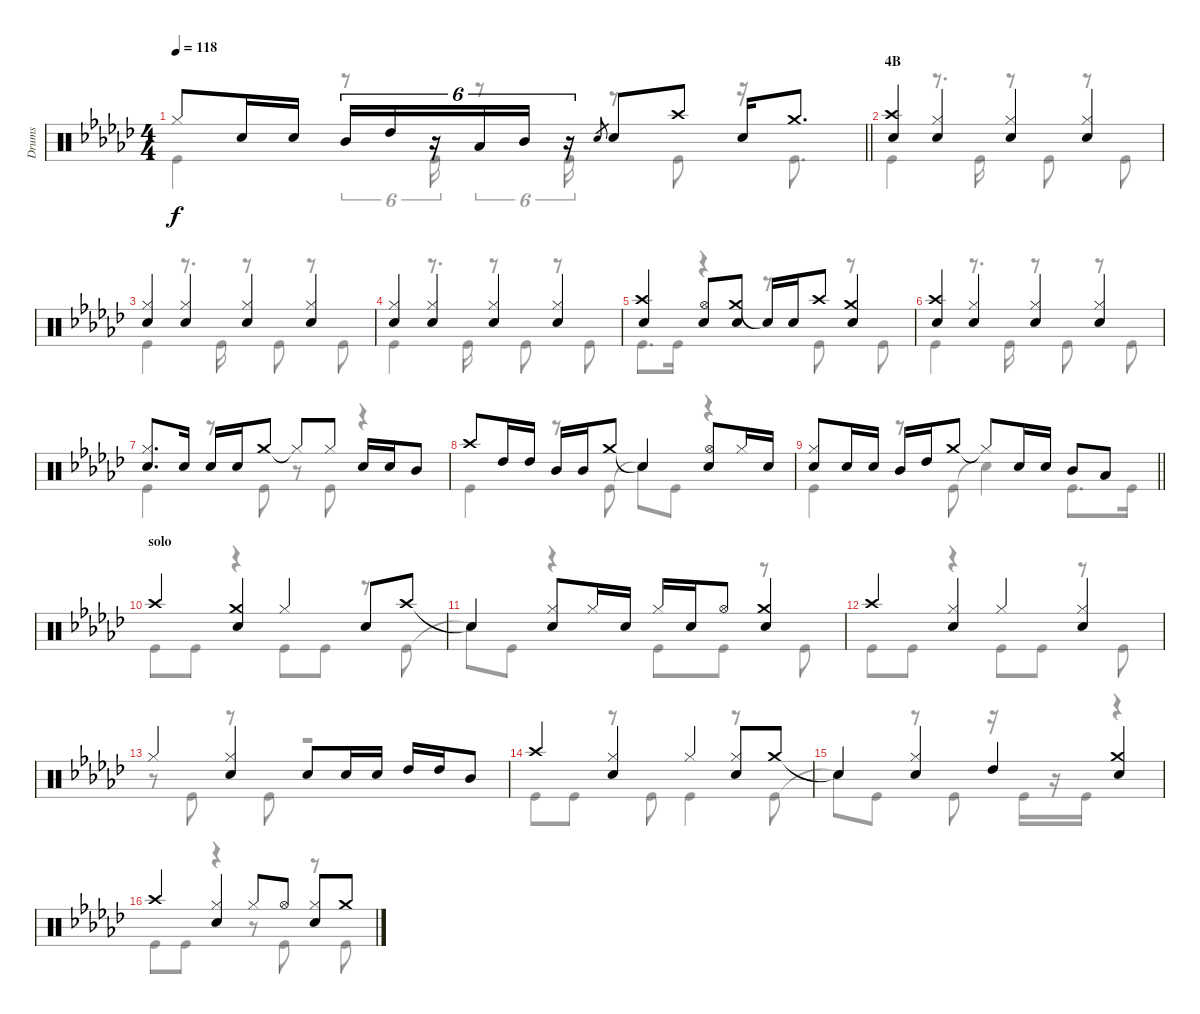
\track ("Drums" "Drums") {instrument percussion}
\staff {score}
\articulation defaults
\voice
\ts (4 4)
\tempo 118
\clef neutral
\barLineRight lightlight
\ks gb "Hi-Hat (closed)".8{dy f} "Snare (hit) 2".16 "Snare (hit) 2".16 "Mid Tom (hit)".16{tu (6 4)} "High Tom (hit)".16{tu (6 4)}
r.16{tu (6 4)} "Low Tom (hit)".16{tu (6 4)} "Mid Tom (hit)".16{tu (6 4)} r.16{tu (6 4)} "Snare (hit) 2".8{gr} "Snare (hit) 2".8 "Crash high (hit)".8 "Snare (hit) 2".16 "Crash medium (hit)".8{d} |
\section ("" "4B")
("Crash high (hit)" "Snare (hit) 2").4 ("Hi-Hat (closed)" "Snare (hit) 2").4 ("Hi-Hat (closed)" "Snare (hit) 2").4 ("Hi-Hat (closed)" "Snare (hit) 2").4 |
("Hi-Hat (closed)" "Snare (hit) 2").4 ("Hi-Hat (closed)" "Snare (hit) 2").4 ("Hi-Hat (closed)" "Snare (hit) 2").4 ("Hi-Hat (closed)" "Snare (hit) 2").4 |
("Hi-Hat (closed)" "Snare (hit) 2").4 ("Hi-Hat (closed)" "Snare (hit) 2").4 ("Hi-Hat (closed)" "Snare (hit) 2").4 ("Hi-Hat (closed)" "Snare (hit) 2").4 |
("Crash high (hit)" "Snare (hit) 2").4 ("Hi-Hat (open)" "Snare (hit) 2").8 ("Crash medium (hit)" "Snare (hit) 2").8 "Snare (hit)"{t}.16 "Snare (hit) 2".16 "Crash high (hit)".8 ("Crash medium (hit)" "Snare (hit) 2").4 |
("Crash high (hit)" "Snare (hit) 2").4 ("Hi-Hat (closed)" "Snare (hit) 2").4 ("Hi-Hat (closed)" "Snare (hit) 2").4 ("Hi-Hat (closed)" "Snare (hit) 2").4 |
("Hi-Hat (closed)" "Snare (hit) 2").8{d} "Snare (hit) 2".16 "Snare (hit) 2".16 "Snare (hit) 2".16 "Crash medium (hit)".8 "Hi-Hat (closed)"{t}.8 "Hi-Hat (closed)".8 "Snare (hit) 2".16 "Snare (hit) 2".16 "Mid Tom (hit)".8 |
"Crash high (hit)".8 "High Tom (hit)".16 "High Tom (hit)".16 "Mid Tom (hit)".16 "Mid Tom (hit)".16 "Crash medium (hit)".8 "Snare (hit)"{t}.4 ("Hi-Hat (open)" "Snare (hit) 2").8 "Hi-Hat (closed)".16 "Snare (hit) 2".16 |
\barLineRight lightlight
("Hi-Hat (closed)" "Snare (hit) 2").8 "Snare (hit) 2".16 "Snare (hit) 2".16 "Mid Tom (hit)".16 "High Tom (hit)".16 "Crash medium (hit)".8 "Hi-Hat (closed)"{t}.8 "Snare (hit) 2".16 "Snare (hit) 2".16 "Mid Tom (hit)".8 "Low Tom (hit)".8 |
\section ("" "solo")
"Crash high (hit)".4 ("Crash medium (hit)" "Snare (hit) 2").4 "Hi-Hat (closed)".4 "Snare (hit) 2".8 "Crash high (hit)".8 |
"Snare (hit)"{t}.4 ("Hi-Hat (closed)" "Snare (hit) 2").8 "Hi-Hat (closed)".16 "Snare (hit) 2".16 "Hi-Hat (closed)".16 "Snare (hit) 2".16 "Hi-Hat (open)".8 ("Crash medium (hit)" "Snare (hit) 2").4 |
"Crash high (hit)".4 ("Hi-Hat (closed)" "Snare (hit) 2").4 "Hi-Hat (closed)".4 ("Hi-Hat (closed)" "Snare (hit) 2").4 |
"Hi-Hat (closed)".4 ("Hi-Hat (closed)" "Snare (hit) 2").4 "Snare (hit) 2".8 "Snare (hit) 2".16 "Snare (hit) 2".16 "High Tom (hit)".16 "High Tom (hit)".16 "Mid Tom (hit)".8 |
"Crash high (hit)".4 ("Hi-Hat (closed)" "Snare (hit) 2").4 "Hi-Hat (closed)".4 ("Hi-Hat (closed)" "Snare (hit) 2").8 "Crash medium (hit)".8 |
"Snare (hit)"{t}.4 ("Hi-Hat (closed)" "Snare (hit) 2").4 "High Tom (hit)".4 ("Crash medium (hit)" "Snare (hit) 2").4 |
"Crash high (hit)".4 ("Hi-Hat (closed)" "Snare (hit) 2").4 "Hi-Hat (closed)".8 "Hi-Hat (open)".8 ("Hi-Hat (closed)" "Snare (hit) 2").8 "Crash medium (hit)".8
\voice
\clef neutral
\ottava regular
\simile none
\barLineRight lightlight
\ks gb "Kick (hit)".4{dy f}
r.8{tu (6 4)} "Kick (hit)".16{tu (6 4)} r.8{tu (6 4)} "Kick (hit)".16{tu (6 4)} r.8 "Kick (hit)".8 r.16 "Kick (hit)".8{d} |
"Kick (hit)".4 r.8{d} "Kick (hit)".16 r.8 "Kick (hit)".8 r.8 "Kick (hit)".8 |
"Kick (hit)".4 r.8{d} "Kick (hit)".16 r.8 "Kick (hit)".8 r.8 "Kick (hit)".8 |
"Kick (hit)".4 r.8{d} "Kick (hit)".16 r.8 "Kick (hit)".8 r.8 "Kick (hit)".8 |
"Kick (hit)".8{d} "Kick (hit)".16 r.4 r.8 "Kick (hit)".8 r.8 "Kick (hit)".8 |
"Kick (hit)".4 r.8{d} "Kick (hit)".16 r.8 "Kick (hit)".8 r.8 "Kick (hit)".8 |
"Kick (hit)".4 r.8 "Kick (hit)".8 r.8 "Kick (hit)".8 r.4 |
"Kick (hit)".4 r.8 "Kick (hit)".8 "Snare (hit)"{t}.8 "Kick (hit)".8 r.4 |
\barLineRight lightlight "Kick (hit)".4
r.8 "Kick (hit)".8 "Snare (hit)"{t}.4 "Kick (hit)".8{d} "Kick (hit)".16 |
"Kick (hit)".8 "Kick (hit)".8 r.4 "Kick (hit)".8 "Kick (hit)".8 r.8 "Kick (hit)".8 |
"Snare (hit)"{t}.8 "Kick (hit)".8 r.4 "Kick (hit)".8 "Kick (hit)".8 r.8 "Kick (hit)".8 |
"Kick (hit)".8 "Kick (hit)".8 r.4 "Kick (hit)".8 "Kick (hit)".8 r.8 "Kick (hit)".8 |
r.8 "Kick (hit)".8 r.8 "Kick (hit)".8 r.2 |
"Kick (hit)".8 "Kick (hit)".8 r.8 "Kick (hit)".8 "Kick (hit)".4 r.8 "Kick (hit)".8 |
"Snare (hit)"{t}.8 "Kick (hit)".8 r.8 "Kick (hit)".8 r.16 "Kick (hit)".16 r.16 "Kick (hit)".16 r.4 |
"Kick (hit)".8 "Kick (hit)".8 r.4 r.8 "Kick (hit)".8 r.8 "Kick (hit)".8
